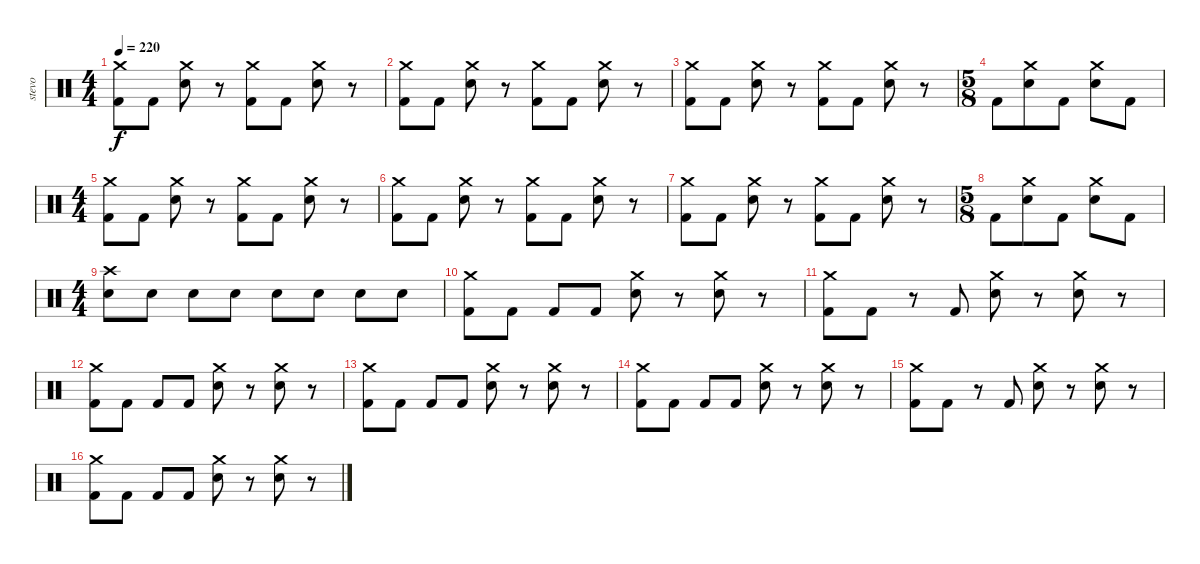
\track ("stevo" "stevo") {instrument percussion}
\staff {score}
\articulation defaults
\ts (4 4)
\tempo 220
\clef neutral
\ks c
("Crash medium (hit)" "Kick (hit) 2").8{dy f} "Kick (hit) 2".8 ("Crash medium (hit)" "Electric Snare (hit)").8 r.8 ("Crash medium (hit)" "Kick (hit) 2").8 "Kick (hit) 2".8 ("Crash medium (hit)" "Electric Snare (hit)").8 r.8 |
("Crash medium (hit)" "Kick (hit) 2").8 "Kick (hit) 2".8 ("Crash medium (hit)" "Electric Snare (hit)").8 r.8 ("Crash medium (hit)" "Kick (hit) 2").8 "Kick (hit) 2".8 ("Crash medium (hit)" "Electric Snare (hit)").8 r.8 |
("Crash medium (hit)" "Kick (hit) 2").8 "Kick (hit) 2".8 ("Crash medium (hit)" "Electric Snare (hit)").8 r.8 ("Crash medium (hit)" "Kick (hit) 2").8 "Kick (hit) 2".8 ("Crash medium (hit)" "Electric Snare (hit)").8 r.8 |
\ts (5 8)
"Kick (hit) 2".8 ("Crash medium (hit)" "Electric Snare (hit)").8 "Kick (hit) 2".8 ("Crash medium (hit)" "Electric Snare (hit)").8 "Kick (hit) 2".8 |
\ts (4 4)
("Crash medium (hit)" "Kick (hit) 2").8 "Kick (hit) 2".8 ("Crash medium (hit)" "Electric Snare (hit)").8 r.8 ("Crash medium (hit)" "Kick (hit) 2").8 "Kick (hit) 2".8 ("Crash medium (hit)" "Electric Snare (hit)").8 r.8 |
("Crash medium (hit)" "Kick (hit) 2").8 "Kick (hit) 2".8 ("Crash medium (hit)" "Electric Snare (hit)").8 r.8 ("Crash medium (hit)" "Kick (hit) 2").8 "Kick (hit) 2".8 ("Crash medium (hit)" "Electric Snare (hit)").8 r.8 |
("Crash medium (hit)" "Kick (hit) 2").8 "Kick (hit) 2".8 ("Crash medium (hit)" "Electric Snare (hit)").8 r.8 ("Crash medium (hit)" "Kick (hit) 2").8 "Kick (hit) 2".8 ("Crash medium (hit)" "Electric Snare (hit)").8 r.8 |
\ts (5 8)
"Kick (hit) 2".8 ("Crash medium (hit)" "Electric Snare (hit)").8 "Kick (hit) 2".8 ("Crash medium (hit)" "Electric Snare (hit)").8 "Kick (hit) 2".8 |
\ts (4 4)
("Crash high (hit)" "Electric Snare (hit)").8 "Electric Snare (hit)".8 "Electric Snare (hit)".8 "Electric Snare (hit)".8 "Electric Snare (hit)".8 "Electric Snare (hit)".8 "Electric Snare (hit)".8 "Electric Snare (hit)".8 |
("Crash medium (hit)" "Kick (hit) 2").8 "Kick (hit) 2".8 "Kick (hit) 2".8 "Kick (hit) 2".8 ("Crash medium (hit)" "Electric Snare (hit)").8 r.8 ("Crash medium (hit)" "Electric Snare (hit)").8 r.8 |
("Crash medium (hit)" "Kick (hit) 2").8 "Kick (hit) 2".8 r.8 "Kick (hit) 2".8 ("Crash medium (hit)" "Electric Snare (hit)").8 r.8 ("Crash medium (hit)" "Electric Snare (hit)").8 r.8 |
("Crash medium (hit)" "Kick (hit) 2").8 "Kick (hit) 2".8 "Kick (hit) 2".8 "Kick (hit) 2".8 ("Crash medium (hit)" "Electric Snare (hit)").8 r.8 ("Crash medium (hit)" "Electric Snare (hit)").8 r.8 |
("Crash medium (hit)" "Kick (hit) 2").8 "Kick (hit) 2".8 "Kick (hit) 2".8 "Kick (hit) 2".8 ("Crash medium (hit)" "Electric Snare (hit)").8 r.8 ("Crash medium (hit)" "Electric Snare (hit)").8 r.8 |
("Crash medium (hit)" "Kick (hit) 2").8 "Kick (hit) 2".8 "Kick (hit) 2".8 "Kick (hit) 2".8 ("Crash medium (hit)" "Electric Snare (hit)").8 r.8 ("Crash medium (hit)" "Electric Snare (hit)").8 r.8 |
("Crash medium (hit)" "Kick (hit) 2").8 "Kick (hit) 2".8 r.8 "Kick (hit) 2".8 ("Crash medium (hit)" "Electric Snare (hit)").8 r.8 ("Crash medium (hit)" "Electric Snare (hit)").8 r.8 |
("Crash medium (hit)" "Kick (hit) 2").8 "Kick (hit) 2".8 "Kick (hit) 2".8 "Kick (hit) 2".8 ("Crash medium (hit)" "Electric Snare (hit)").8 r.8 ("Crash medium (hit)" "Electric Snare (hit)").8 r.8
